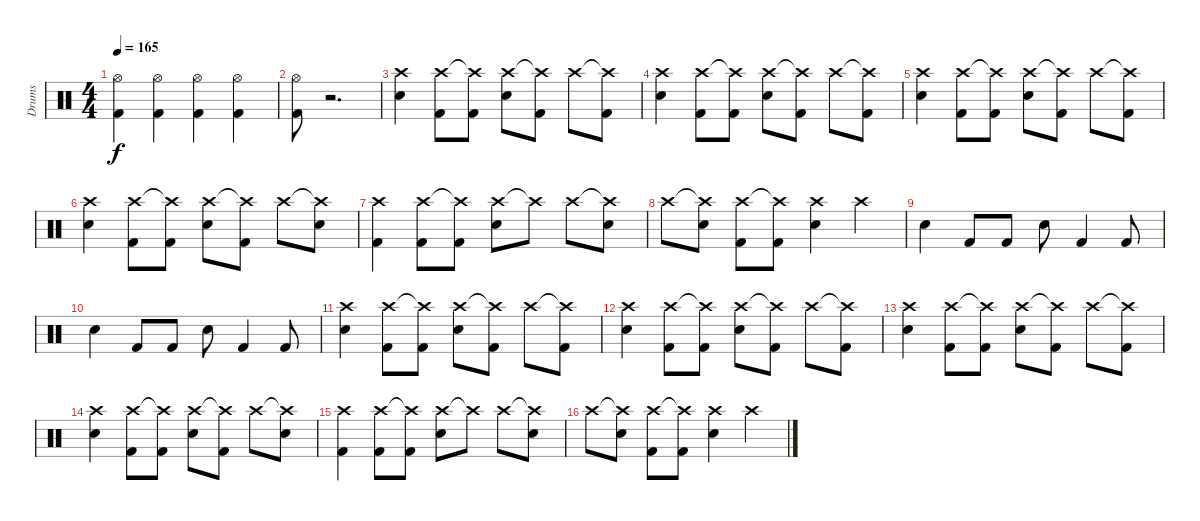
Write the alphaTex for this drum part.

\track ("Drums" "Drums") {instrument percussion}
\staff {score}
\articulation defaults
\ts (4 4)
\tempo 165
\clef neutral
\ks c
("Hi-Hat (open)" "Kick (hit) 2").4{dy f} ("Hi-Hat (open)" "Kick (hit) 2").4 ("Hi-Hat (open)" "Kick (hit) 2").4 ("Hi-Hat (open)" "Kick (hit) 2").4 |
("Hi-Hat (open)" "Kick (hit) 2").8 r.2{d} |
("Crash high (hit)" "Snare (hit) 2").4 ("Crash high (hit)" "Kick (hit) 2").8 ("Crash high (hit)"{t} "Kick (hit) 2").8 ("Crash high (hit)" "Snare (hit) 2").8 ("Crash high (hit)"{t} "Kick (hit) 2").8 "Crash high (hit)".8 ("Crash high (hit)"{t} "Kick (hit) 2").8 |
("Crash high (hit)" "Snare (hit) 2").4 ("Crash high (hit)" "Kick (hit) 2").8 ("Crash high (hit)"{t} "Kick (hit) 2").8 ("Crash high (hit)" "Snare (hit) 2").8 ("Crash high (hit)"{t} "Kick (hit) 2").8 "Crash high (hit)".8 ("Crash high (hit)"{t} "Kick (hit) 2").8 |
("Crash high (hit)" "Snare (hit) 2").4 ("Crash high (hit)" "Kick (hit) 2").8 ("Crash high (hit)"{t} "Kick (hit) 2").8 ("Crash high (hit)" "Snare (hit) 2").8 ("Crash high (hit)"{t} "Kick (hit) 2").8 "Crash high (hit)".8 ("Crash high (hit)"{t} "Kick (hit) 2").8 |
("Crash high (hit)" "Snare (hit) 2").4 ("Crash high (hit)" "Kick (hit) 2").8 ("Crash high (hit)"{t} "Kick (hit) 2").8 ("Crash high (hit)" "Snare (hit) 2").8 ("Crash high (hit)"{t} "Kick (hit) 2").8 "Crash high (hit)".8 ("Crash high (hit)"{t} "Snare (hit) 2").8 |
("Crash high (hit)" "Kick (hit) 2").4 ("Crash high (hit)" "Kick (hit) 2").8 ("Crash high (hit)"{t} "Kick (hit) 2").8 ("Crash high (hit)" "Snare (hit) 2").8 "Crash high (hit)"{t}.8 "Crash high (hit)".8 ("Crash high (hit)"{t} "Snare (hit) 2").8 |
"Crash high (hit)".8 ("Crash high (hit)"{t} "Snare (hit) 2").8 ("Crash high (hit)" "Kick (hit) 2").8 ("Crash high (hit)"{t} "Kick (hit) 2").8 ("Crash high (hit)" "Snare (hit) 2").4 "Crash high (hit)".4 |
"Snare (hit) 2".4 "Kick (hit) 2".8 "Kick (hit) 2".8 "Snare (hit) 2".8 "Kick (hit) 2".4 "Kick (hit) 2".8 |
"Snare (hit) 2".4 "Kick (hit) 2".8 "Kick (hit) 2".8 "Snare (hit) 2".8 "Kick (hit) 2".4 "Kick (hit) 2".8 |
("Crash high (hit)" "Snare (hit) 2").4 ("Crash high (hit)" "Kick (hit) 2").8 ("Crash high (hit)"{t} "Kick (hit) 2").8 ("Crash high (hit)" "Snare (hit) 2").8 ("Crash high (hit)"{t} "Kick (hit) 2").8 "Crash high (hit)".8 ("Crash high (hit)"{t} "Kick (hit) 2").8 |
("Crash high (hit)" "Snare (hit) 2").4 ("Crash high (hit)" "Kick (hit) 2").8 ("Crash high (hit)"{t} "Kick (hit) 2").8 ("Crash high (hit)" "Snare (hit) 2").8 ("Crash high (hit)"{t} "Kick (hit) 2").8 "Crash high (hit)".8 ("Crash high (hit)"{t} "Kick (hit) 2").8 |
("Crash high (hit)" "Snare (hit) 2").4 ("Crash high (hit)" "Kick (hit) 2").8 ("Crash high (hit)"{t} "Kick (hit) 2").8 ("Crash high (hit)" "Snare (hit) 2").8 ("Crash high (hit)"{t} "Kick (hit) 2").8 "Crash high (hit)".8 ("Crash high (hit)"{t} "Kick (hit) 2").8 |
("Crash high (hit)" "Snare (hit) 2").4 ("Crash high (hit)" "Kick (hit) 2").8 ("Crash high (hit)"{t} "Kick (hit) 2").8 ("Crash high (hit)" "Snare (hit) 2").8 ("Crash high (hit)"{t} "Kick (hit) 2").8 "Crash high (hit)".8 ("Crash high (hit)"{t} "Snare (hit) 2").8 |
("Crash high (hit)" "Kick (hit) 2").4 ("Crash high (hit)" "Kick (hit) 2").8 ("Crash high (hit)"{t} "Kick (hit) 2").8 ("Crash high (hit)" "Snare (hit) 2").8 "Crash high (hit)"{t}.8 "Crash high (hit)".8 ("Crash high (hit)"{t} "Snare (hit) 2").8 |
"Crash high (hit)".8 ("Crash high (hit)"{t} "Snare (hit) 2").8 ("Crash high (hit)" "Kick (hit) 2").8 ("Crash high (hit)"{t} "Kick (hit) 2").8 ("Crash high (hit)" "Snare (hit) 2").4 "Crash high (hit)".4
